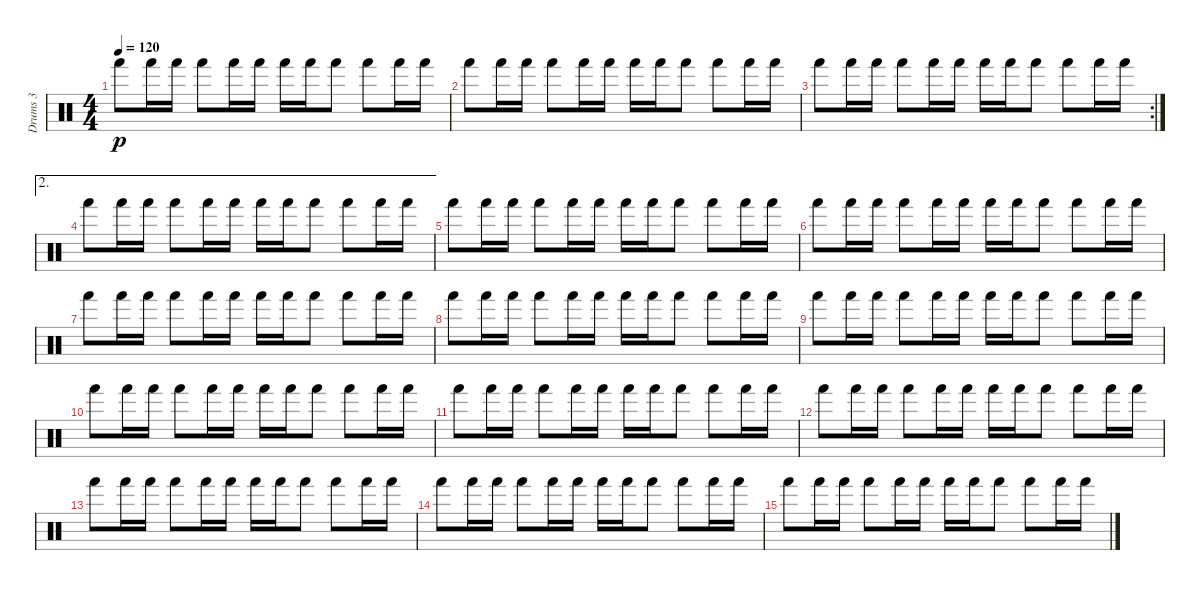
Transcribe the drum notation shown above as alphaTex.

\track ("Drums 3" "Drums 3") {instrument percussion}
\staff {score}
\articulation defaults
\ts (4 4)
\tempo 120
\clef neutral
\ks c "Hand (hit)".8{dy p} "Hand (hit)".16 "Hand (hit)".16 "Hand (hit)".8 "Hand (hit)".16 "Hand (hit)".16 "Hand (hit)".16 "Hand (hit)".16 "Hand (hit)".8 "Hand (hit)".8 "Hand (hit)".16 "Hand (hit)".16
|
"Hand (hit)".8 "Hand (hit)".16 "Hand (hit)".16 "Hand (hit)".8 "Hand (hit)".16 "Hand (hit)".16 "Hand (hit)".16 "Hand (hit)".16 "Hand (hit)".8 "Hand (hit)".8 "Hand (hit)".16 "Hand (hit)".16 |
\rc 2 "Hand (hit)".8 "Hand (hit)".16 "Hand (hit)".16 "Hand (hit)".8 "Hand (hit)".16 "Hand (hit)".16 "Hand (hit)".16 "Hand (hit)".16 "Hand (hit)".8 "Hand (hit)".8 "Hand (hit)".16 "Hand (hit)".16
|
\ae 2 "Hand (hit)".8 "Hand (hit)".16 "Hand (hit)".16 "Hand (hit)".8 "Hand (hit)".16 "Hand (hit)".16 "Hand (hit)".16 "Hand (hit)".16 "Hand (hit)".8 "Hand (hit)".8 "Hand (hit)".16 "Hand (hit)".16
|
"Hand (hit)".8 "Hand (hit)".16 "Hand (hit)".16 "Hand (hit)".8 "Hand (hit)".16 "Hand (hit)".16 "Hand (hit)".16 "Hand (hit)".16 "Hand (hit)".8 "Hand (hit)".8 "Hand (hit)".16 "Hand (hit)".16 |
"Hand (hit)".8 "Hand (hit)".16 "Hand (hit)".16 "Hand (hit)".8 "Hand (hit)".16 "Hand (hit)".16 "Hand (hit)".16 "Hand (hit)".16 "Hand (hit)".8 "Hand (hit)".8 "Hand (hit)".16 "Hand (hit)".16 |
"Hand (hit)".8 "Hand (hit)".16 "Hand (hit)".16 "Hand (hit)".8 "Hand (hit)".16 "Hand (hit)".16 "Hand (hit)".16 "Hand (hit)".16 "Hand (hit)".8 "Hand (hit)".8 "Hand (hit)".16 "Hand (hit)".16 |
"Hand (hit)".8 "Hand (hit)".16 "Hand (hit)".16 "Hand (hit)".8 "Hand (hit)".16 "Hand (hit)".16 "Hand (hit)".16 "Hand (hit)".16 "Hand (hit)".8 "Hand (hit)".8 "Hand (hit)".16 "Hand (hit)".16 |
"Hand (hit)".8 "Hand (hit)".16 "Hand (hit)".16 "Hand (hit)".8 "Hand (hit)".16 "Hand (hit)".16 "Hand (hit)".16 "Hand (hit)".16 "Hand (hit)".8 "Hand (hit)".8 "Hand (hit)".16 "Hand (hit)".16 |
"Hand (hit)".8 "Hand (hit)".16 "Hand (hit)".16 "Hand (hit)".8 "Hand (hit)".16 "Hand (hit)".16 "Hand (hit)".16 "Hand (hit)".16 "Hand (hit)".8 "Hand (hit)".8 "Hand (hit)".16 "Hand (hit)".16 |
"Hand (hit)".8 "Hand (hit)".16 "Hand (hit)".16 "Hand (hit)".8 "Hand (hit)".16 "Hand (hit)".16 "Hand (hit)".16 "Hand (hit)".16 "Hand (hit)".8 "Hand (hit)".8 "Hand (hit)".16 "Hand (hit)".16 |
"Hand (hit)".8 "Hand (hit)".16 "Hand (hit)".16 "Hand (hit)".8 "Hand (hit)".16 "Hand (hit)".16 "Hand (hit)".16 "Hand (hit)".16 "Hand (hit)".8 "Hand (hit)".8 "Hand (hit)".16 "Hand (hit)".16 |
"Hand (hit)".8 "Hand (hit)".16 "Hand (hit)".16 "Hand (hit)".8 "Hand (hit)".16 "Hand (hit)".16 "Hand (hit)".16 "Hand (hit)".16 "Hand (hit)".8 "Hand (hit)".8 "Hand (hit)".16 "Hand (hit)".16 |
"Hand (hit)".8 "Hand (hit)".16 "Hand (hit)".16 "Hand (hit)".8 "Hand (hit)".16 "Hand (hit)".16 "Hand (hit)".16 "Hand (hit)".16 "Hand (hit)".8 "Hand (hit)".8 "Hand (hit)".16 "Hand (hit)".16 |
"Hand (hit)".8 "Hand (hit)".16 "Hand (hit)".16 "Hand (hit)".8 "Hand (hit)".16 "Hand (hit)".16 "Hand (hit)".16 "Hand (hit)".16 "Hand (hit)".8 "Hand (hit)".8 "Hand (hit)".16 "Hand (hit)".16
